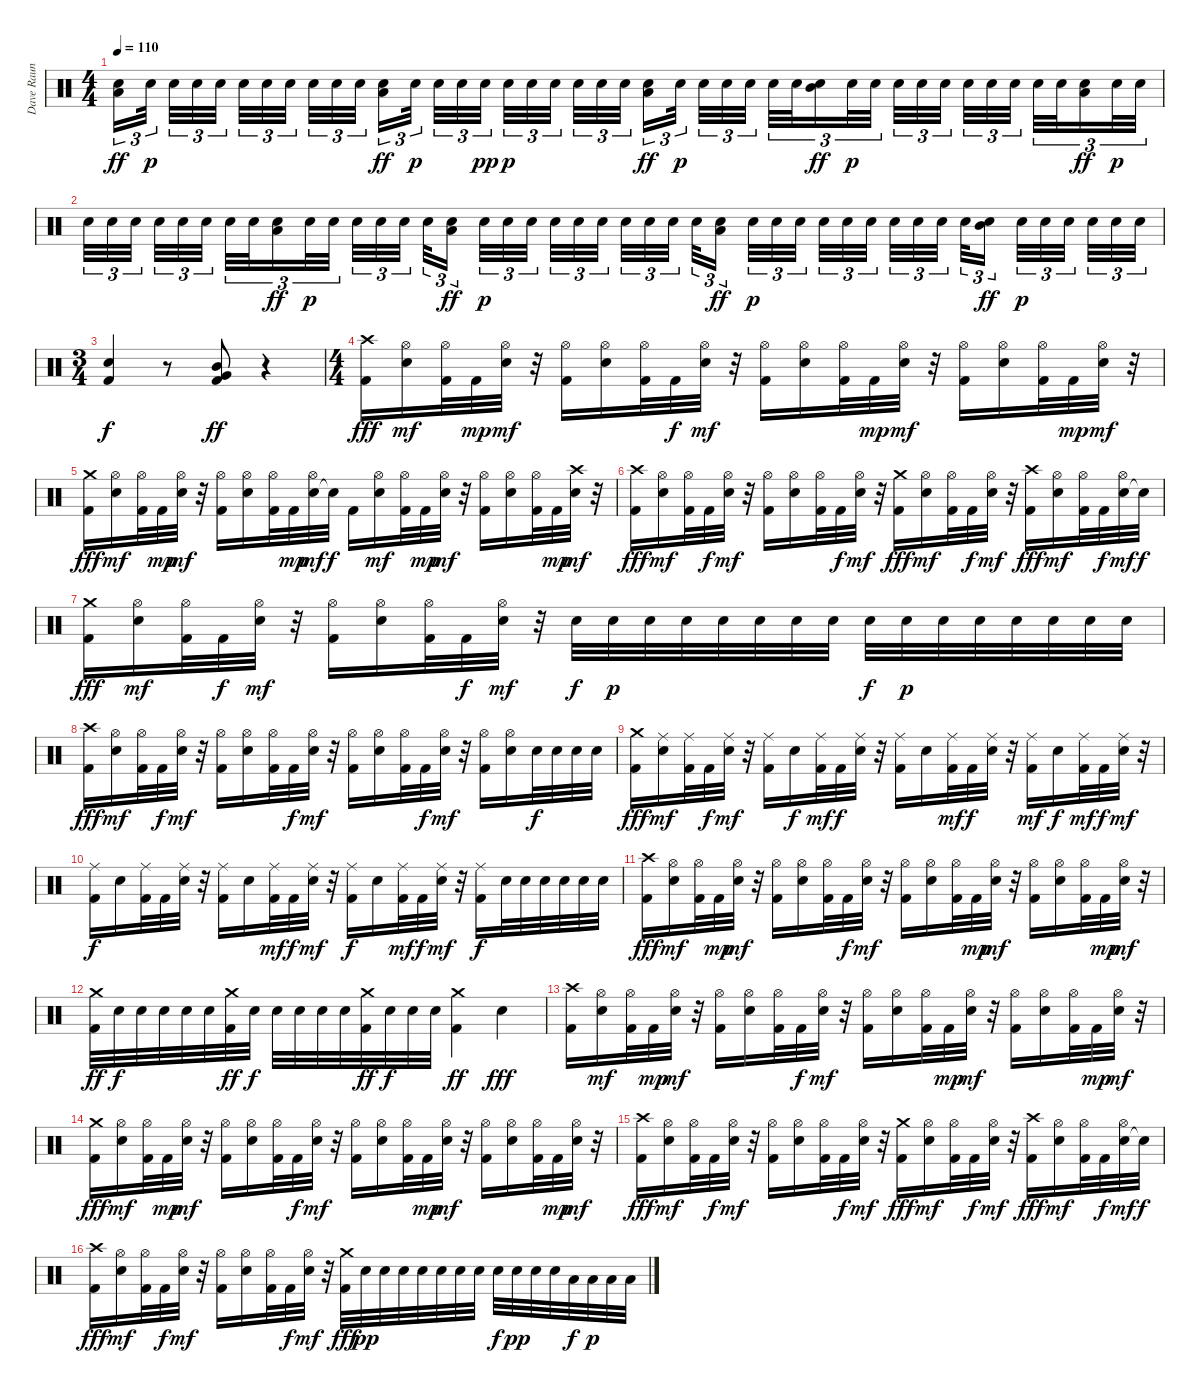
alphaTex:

\track ("Dave Raun" "Dave Raun") {instrument percussion}
\staff {score}
\articulation defaults
\ts (4 4)
\tempo 110
\clef neutral
\ks c
("Electric Snare (hit)" "Low Floor Tom (hit)").16{tu (3 2) dy ff} "Electric Snare (hit)".32{tu (3 2) dy p} "Electric Snare (hit)".32{tu (3 2)} "Electric Snare (hit)".32{tu (3 2)} "Electric Snare (hit)".32{tu (3 2)} "Electric Snare (hit)".32{tu (3 2)} "Electric Snare (hit)".32{tu (3 2)} "Electric Snare (hit)".32{tu (3 2)} "Electric Snare (hit)".32{tu (3 2)} "Electric Snare (hit)".32{tu (3 2)} "Electric Snare (hit)".32{tu (3 2)} ("Electric Snare (hit)" "Low Tom (hit)").16{tu (3 2) dy ff} "Electric Snare (hit)".32{tu (3 2) dy p} "Electric Snare (hit)".32{tu (3 2)} "Electric Snare (hit)".32{tu (3 2)} "Electric Snare (hit)".32{tu (3 2) dy pp} "Electric Snare (hit)".32{tu (3 2) dy p} "Electric Snare (hit)".32{tu (3 2)} "Electric Snare (hit)".32{tu (3 2)} "Electric Snare (hit)".32{tu (3 2)} "Electric Snare (hit)".32{tu (3 2)} "Electric Snare (hit)".32{tu (3 2)} ("Electric Snare (hit)" "Low Floor Tom (hit)").16{tu (3 2) dy ff} "Electric Snare (hit)".32{tu (3 2) dy p} "Electric Snare (hit)".32{tu (3 2)} "Electric Snare (hit)".32{tu (3 2)} "Electric Snare (hit)".32{tu (3 2)} "Electric Snare (hit)".32{tu (3 2)} "Electric Snare (hit)".32{tu (3 2)} ("Electric Snare (hit)" "Mid Tom (hit)").16{tu (3 2) dy ff} "Electric Snare (hit)".32{tu (3 2) dy p} "Electric Snare (hit)".32{tu (3 2)} "Electric Snare (hit)".32{tu (3 2)} "Electric Snare (hit)".32{tu (3 2)} "Electric Snare (hit)".32{tu (3 2)} "Electric Snare (hit)".32{tu (3 2)} "Electric Snare (hit)".32{tu (3 2)} "Electric Snare (hit)".32{tu (3 2)} "Electric Snare (hit)".32{tu (3 2)} "Electric Snare (hit)".32{tu (3 2)} ("Electric Snare (hit)" "Low Tom (hit)").16{tu (3 2) dy ff} "Electric Snare (hit)".32{tu (3 2) dy p} "Electric Snare (hit)".32{tu (3 2)} |
"Electric Snare (hit)".32{tu (3 2)} "Electric Snare (hit)".32{tu (3 2)} "Electric Snare (hit)".32{tu (3 2)} "Electric Snare (hit)".32{tu (3 2)} "Electric Snare (hit)".32{tu (3 2)} "Electric Snare (hit)".32{tu (3 2)} "Electric Snare (hit)".32{tu (3 2)} "Electric Snare (hit)".32{tu (3 2)} ("Electric Snare (hit)" "Low Floor Tom (hit)").16{tu (3 2) dy ff} "Electric Snare (hit)".32{tu (3 2) dy p} "Electric Snare (hit)".32{tu (3 2)} "Electric Snare (hit)".32{tu (3 2)} "Electric Snare (hit)".32{tu (3 2)} "Electric Snare (hit)".32{tu (3 2)} "Electric Snare (hit)".32{tu (3 2)} ("Electric Snare (hit)" "Low Tom (hit)").16{tu (3 2) dy ff} "Electric Snare (hit)".32{tu (3 2) dy p} "Electric Snare (hit)".32{tu (3 2)} "Electric Snare (hit)".32{tu (3 2)} "Electric Snare (hit)".32{tu (3 2)} "Electric Snare (hit)".32{tu (3 2)} "Electric Snare (hit)".32{tu (3 2)} "Electric Snare (hit)".32{tu (3 2)} "Electric Snare (hit)".32{tu (3 2)} "Electric Snare (hit)".32{tu (3 2)} "Electric Snare (hit)".32{tu (3 2)} ("Electric Snare (hit)" "Low Floor Tom (hit)").16{tu (3 2) dy ff} "Electric Snare (hit)".32{tu (3 2) dy p} "Electric Snare (hit)".32{tu (3 2)} "Electric Snare (hit)".32{tu (3 2)} "Electric Snare (hit)".32{tu (3 2)} "Electric Snare (hit)".32{tu (3 2)} "Electric Snare (hit)".32{tu (3 2)} "Electric Snare (hit)".32{tu (3 2)} "Electric Snare (hit)".32{tu (3 2)} "Electric Snare (hit)".32{tu (3 2)} "Electric Snare (hit)".32{tu (3 2)} ("Electric Snare (hit)" "Mid Tom (hit)").16{tu (3 2) dy ff} "Electric Snare (hit)".32{tu (3 2) dy p} "Electric Snare (hit)".32{tu (3 2)} "Electric Snare (hit)".32{tu (3 2)} "Electric Snare (hit)".32{tu (3 2)} "Electric Snare (hit)".32{tu (3 2)} "Electric Snare (hit)".32{tu (3 2)} |
\ts (3 4)
("Electric Snare (hit)" "Kick (hit) 2").4{dy f} r.8 ("Very Low Tom (hit)" "Mid Tom (hit)" "Kick (hit) 2").8{dy ff} r.4 |
\ts (4 4)
("Kick (hit) 2" "Crash high (hit)").16{dy fff} ("Electric Snare (hit)" "Hi-Hat (open)").16{dy mf} ("Kick (hit) 2" "Hi-Hat (open)").32 "Kick (hit) 2".32{dy mp} ("Electric Snare (hit)" "Hi-Hat (open)").32{dy mf} r.32 ("Kick (hit) 2" "Hi-Hat (open)").16 ("Electric Snare (hit)" "Hi-Hat (open)").16 ("Kick (hit) 2" "Hi-Hat (open)").32 "Kick (hit) 2".32{dy f} ("Electric Snare (hit)" "Hi-Hat (open)").32{dy mf} r.32 ("Kick (hit) 2" "Hi-Hat (open)").16 ("Electric Snare (hit)" "Hi-Hat (open)").16 ("Kick (hit) 2" "Hi-Hat (open)").32 "Kick (hit) 2".32{dy mp} ("Electric Snare (hit)" "Hi-Hat (open)").32{dy mf} r.32 ("Kick (hit) 2" "Hi-Hat (open)").16 ("Electric Snare (hit)" "Hi-Hat (open)").16 ("Kick (hit) 2" "Hi-Hat (open)").32 "Kick (hit) 2".32{dy mp} ("Electric Snare (hit)" "Hi-Hat (open)").32{dy mf} r.32 |
("Kick (hit) 2" "Crash medium (hit)").16{dy fff} ("Electric Snare (hit)" "Hi-Hat (open)").16{dy mf} ("Kick (hit) 2" "Hi-Hat (open)").32 "Kick (hit) 2".32{dy mp} ("Electric Snare (hit)" "Hi-Hat (open)").32{dy mf} r.32 ("Kick (hit) 2" "Hi-Hat (open)").16 ("Electric Snare (hit)" "Hi-Hat (open)").16 ("Kick (hit) 2" "Hi-Hat (open)").32 "Kick (hit) 2".32{dy mp} ("Electric Snare (hit)" "Hi-Hat (open)").32{dy mf} "Snare (hit)"{t}.32{dy f} "Kick (hit) 2".16 ("Electric Snare (hit)" "Hi-Hat (open)").16{dy mf} ("Kick (hit) 2" "Hi-Hat (open)").32 "Kick (hit) 2".32{dy mp} ("Electric Snare (hit)" "Hi-Hat (open)").32{dy mf} r.32 ("Kick (hit) 2" "Hi-Hat (open)").16 ("Electric Snare (hit)" "Hi-Hat (open)").16 ("Kick (hit) 2" "Hi-Hat (open)").32 "Kick (hit) 2".32{dy mp} ("Electric Snare (hit)" "Crash high (hit)").32{dy mf} r.32 |
("Kick (hit) 2" "Crash high (hit)").16{dy fff} ("Electric Snare (hit)" "Hi-Hat (open)").16{dy mf} ("Kick (hit) 2" "Hi-Hat (open)").32 "Kick (hit) 2".32{dy f} ("Electric Snare (hit)" "Hi-Hat (open)").32{dy mf} r.32 ("Kick (hit) 2" "Hi-Hat (open)").16 ("Electric Snare (hit)" "Hi-Hat (open)").16 ("Kick (hit) 2" "Hi-Hat (open)").32 "Kick (hit) 2".32{dy f} ("Electric Snare (hit)" "Hi-Hat (open)").32{dy mf} r.32 ("Kick (hit) 2" "Crash medium (hit)").16{dy fff} ("Electric Snare (hit)" "Hi-Hat (open)").16{dy mf} ("Kick (hit) 2" "Hi-Hat (open)").32 "Kick (hit) 2".32{dy f} ("Electric Snare (hit)" "Hi-Hat (open)").32{dy mf} r.32 ("Kick (hit) 2" "Crash high (hit)").16{dy fff} ("Electric Snare (hit)" "Hi-Hat (open)").16{dy mf} ("Kick (hit) 2" "Hi-Hat (open)").32 "Kick (hit) 2".32{dy f} ("Electric Snare (hit)" "Hi-Hat (open)").32{dy mf} "Snare (hit)"{t}.32{dy f} |
("Kick (hit) 2" "Crash medium (hit)").16{dy fff} ("Electric Snare (hit)" "Hi-Hat (open)").16{dy mf} ("Kick (hit) 2" "Hi-Hat (open)").32 "Kick (hit) 2".32{dy f} ("Electric Snare (hit)" "Hi-Hat (open)").32{dy mf} r.32 ("Kick (hit) 2" "Hi-Hat (open)").16 ("Electric Snare (hit)" "Hi-Hat (open)").16 ("Kick (hit) 2" "Hi-Hat (open)").32 "Kick (hit) 2".32{dy f} ("Electric Snare (hit)" "Hi-Hat (open)").32{dy mf} r.32 "Electric Snare (hit)".32{dy f} "Electric Snare (hit)".32{dy p} "Electric Snare (hit)".32 "Electric Snare (hit)".32 "Electric Snare (hit)".32 "Electric Snare (hit)".32 "Electric Snare (hit)".32 "Electric Snare (hit)".32 "Electric Snare (hit)".32{dy f} "Electric Snare (hit)".32{dy p} "Electric Snare (hit)".32 "Electric Snare (hit)".32 "Electric Snare (hit)".32 "Electric Snare (hit)".32 "Electric Snare (hit)".32 "Electric Snare (hit)".32 |
("Kick (hit) 2" "Crash high (hit)").16{dy fff} ("Electric Snare (hit)" "Hi-Hat (open)").16{dy mf} ("Kick (hit) 2" "Hi-Hat (open)").32 "Kick (hit) 2".32{dy f} ("Electric Snare (hit)" "Hi-Hat (open)").32{dy mf} r.32 ("Kick (hit) 2" "Hi-Hat (open)").16 ("Electric Snare (hit)" "Hi-Hat (open)").16 ("Kick (hit) 2" "Hi-Hat (open)").32 "Kick (hit) 2".32{dy f} ("Electric Snare (hit)" "Hi-Hat (open)").32{dy mf} r.32 ("Kick (hit) 2" "Hi-Hat (open)").16 ("Electric Snare (hit)" "Hi-Hat (open)").16 ("Kick (hit) 2" "Hi-Hat (open)").32 "Kick (hit) 2".32{dy f} ("Electric Snare (hit)" "Hi-Hat (open)").32{dy mf} r.32 ("Kick (hit) 2" "Hi-Hat (open)").16 ("Electric Snare (hit)" "Hi-Hat (open)").16 "Electric Snare (hit)".32{dy f} "Electric Snare (hit)".32 "Electric Snare (hit)".32 "Electric Snare (hit)".32 |
("Kick (hit) 2" "Crash medium (hit)").16{dy fff} ("Electric Snare (hit)" "Ride (middle)").16{dy mf} ("Kick (hit) 2" "Ride (middle)").32 "Kick (hit) 2".32{dy f} ("Electric Snare (hit)" "Ride (middle)").32{dy mf} r.32 ("Kick (hit) 2" "Ride (middle)").16 "Electric Snare (hit)".16{dy f} ("Kick (hit) 2" "Ride (middle)").32{dy mf} "Kick (hit) 2".32{dy f} ("Electric Snare (hit)" "Ride (middle)").32 r.32 ("Kick (hit) 2" "Ride (middle)").16 "Electric Snare (hit)".16 ("Kick (hit) 2" "Ride (middle)").32{dy mf} "Kick (hit) 2".32{dy f} ("Electric Snare (hit)" "Ride (middle)").32 r.32 ("Kick (hit) 2" "Ride (middle)").16{dy mf} "Electric Snare (hit)".16{dy f} ("Kick (hit) 2" "Ride (middle)").32{dy mf} "Kick (hit) 2".32{dy f} ("Electric Snare (hit)" "Ride (middle)").32{dy mf} r.32 |
("Kick (hit) 2" "Ride (middle)").16{dy f} "Electric Snare (hit)".16 ("Kick (hit) 2" "Ride (middle)").32 "Kick (hit) 2".32 ("Electric Snare (hit)" "Ride (middle)").32 r.32 ("Kick (hit) 2" "Ride (middle)").16 "Electric Snare (hit)".16 ("Kick (hit) 2" "Ride (middle)").32{dy mf} "Kick (hit) 2".32{dy f} ("Electric Snare (hit)" "Ride (middle)").32{dy mf} r.32 ("Kick (hit) 2" "Ride (middle)").16{dy f} "Electric Snare (hit)".16 ("Kick (hit) 2" "Ride (middle)").32{dy mf} "Kick (hit) 2".32{dy f} ("Electric Snare (hit)" "Ride (middle)").32{dy mf} r.32 ("Kick (hit) 2" "Ride (middle)").16{dy f} "Electric Snare (hit)".32 "Electric Snare (hit)".32 "Electric Snare (hit)".32 "Electric Snare (hit)".32 "Electric Snare (hit)".32 "Electric Snare (hit)".32 |
("Kick (hit) 2" "Crash high (hit)").16{dy fff} ("Electric Snare (hit)" "Hi-Hat (open)").16{dy mf} ("Kick (hit) 2" "Hi-Hat (open)").32 "Kick (hit) 2".32{dy mp} ("Electric Snare (hit)" "Hi-Hat (open)").32{dy mf} r.32 ("Kick (hit) 2" "Hi-Hat (open)").16 ("Electric Snare (hit)" "Hi-Hat (open)").16 ("Kick (hit) 2" "Hi-Hat (open)").32 "Kick (hit) 2".32{dy f} ("Electric Snare (hit)" "Hi-Hat (open)").32{dy mf} r.32 ("Kick (hit) 2" "Hi-Hat (open)").16 ("Electric Snare (hit)" "Hi-Hat (open)").16 ("Kick (hit) 2" "Hi-Hat (open)").32 "Kick (hit) 2".32{dy mp} ("Electric Snare (hit)" "Hi-Hat (open)").32{dy mf} r.32 ("Kick (hit) 2" "Hi-Hat (open)").16 ("Electric Snare (hit)" "Hi-Hat (open)").16 ("Kick (hit) 2" "Hi-Hat (open)").32 "Kick (hit) 2".32{dy mp} ("Electric Snare (hit)" "Hi-Hat (open)").32{dy mf} r.32 |
("Crash medium (hit)" "Kick (hit) 2").32{dy ff} "Electric Snare (hit)".32{dy f} "Electric Snare (hit)".32 "Electric Snare (hit)".32 "Electric Snare (hit)".32 "Electric Snare (hit)".32 ("Crash medium (hit)" "Kick (hit) 2").32{dy ff} "Electric Snare (hit)".32{dy f} "Electric Snare (hit)".32 "Electric Snare (hit)".32 "Electric Snare (hit)".32 "Electric Snare (hit)".32 ("Crash medium (hit)" "Kick (hit) 2").32{dy ff} "Electric Snare (hit)".32{dy f} "Electric Snare (hit)".32 "Electric Snare (hit)".32 ("Crash medium (hit)" "Kick (hit) 2").4{dy ff} "Electric Snare (hit)".4{dy fff} |
("Kick (hit) 2" "Crash high (hit)").16 ("Electric Snare (hit)" "Hi-Hat (open)").16{dy mf} ("Kick (hit) 2" "Hi-Hat (open)").32 "Kick (hit) 2".32{dy mp} ("Electric Snare (hit)" "Hi-Hat (open)").32{dy mf} r.32 ("Kick (hit) 2" "Hi-Hat (open)").16 ("Electric Snare (hit)" "Hi-Hat (open)").16 ("Kick (hit) 2" "Hi-Hat (open)").32 "Kick (hit) 2".32{dy f} ("Electric Snare (hit)" "Hi-Hat (open)").32{dy mf} r.32 ("Kick (hit) 2" "Hi-Hat (open)").16 ("Electric Snare (hit)" "Hi-Hat (open)").16 ("Kick (hit) 2" "Hi-Hat (open)").32 "Kick (hit) 2".32{dy mp} ("Electric Snare (hit)" "Hi-Hat (open)").32{dy mf} r.32 ("Kick (hit) 2" "Hi-Hat (open)").16 ("Electric Snare (hit)" "Hi-Hat (open)").16 ("Kick (hit) 2" "Hi-Hat (open)").32 "Kick (hit) 2".32{dy mp} ("Electric Snare (hit)" "Hi-Hat (open)").32{dy mf} r.32 |
("Kick (hit) 2" "Crash medium (hit)").16{dy fff} ("Electric Snare (hit)" "Hi-Hat (open)").16{dy mf} ("Kick (hit) 2" "Hi-Hat (open)").32 "Kick (hit) 2".32{dy mp} ("Electric Snare (hit)" "Hi-Hat (open)").32{dy mf} r.32 ("Kick (hit) 2" "Hi-Hat (open)").16 ("Electric Snare (hit)" "Hi-Hat (open)").16 ("Kick (hit) 2" "Hi-Hat (open)").32 "Kick (hit) 2".32{dy f} ("Electric Snare (hit)" "Hi-Hat (open)").32{dy mf} r.32 ("Kick (hit) 2" "Hi-Hat (open)").16 ("Electric Snare (hit)" "Hi-Hat (open)").16 ("Kick (hit) 2" "Hi-Hat (open)").32 "Kick (hit) 2".32{dy mp} ("Electric Snare (hit)" "Hi-Hat (open)").32{dy mf} r.32 ("Kick (hit) 2" "Hi-Hat (open)").16 ("Electric Snare (hit)" "Hi-Hat (open)").16 ("Kick (hit) 2" "Hi-Hat (open)").32 "Kick (hit) 2".32{dy mp} ("Electric Snare (hit)" "Hi-Hat (open)").32{dy mf} r.32 |
("Kick (hit) 2" "Crash high (hit)").16{dy fff} ("Electric Snare (hit)" "Hi-Hat (open)").16{dy mf} ("Kick (hit) 2" "Hi-Hat (open)").32 "Kick (hit) 2".32{dy f} ("Electric Snare (hit)" "Hi-Hat (open)").32{dy mf} r.32 ("Kick (hit) 2" "Hi-Hat (open)").16 ("Electric Snare (hit)" "Hi-Hat (open)").16 ("Kick (hit) 2" "Hi-Hat (open)").32 "Kick (hit) 2".32{dy f} ("Electric Snare (hit)" "Hi-Hat (open)").32{dy mf} r.32 ("Kick (hit) 2" "Crash medium (hit)").16{dy fff} ("Electric Snare (hit)" "Hi-Hat (open)").16{dy mf} ("Kick (hit) 2" "Hi-Hat (open)").32 "Kick (hit) 2".32{dy f} ("Electric Snare (hit)" "Hi-Hat (open)").32{dy mf} r.32 ("Kick (hit) 2" "Crash high (hit)").16{dy fff} ("Electric Snare (hit)" "Hi-Hat (open)").16{dy mf} ("Kick (hit) 2" "Hi-Hat (open)").32 "Kick (hit) 2".32{dy f} ("Electric Snare (hit)" "Hi-Hat (open)").32{dy mf} "Snare (hit)"{t}.32{dy f} |
("Kick (hit) 2" "Crash high (hit)").16{dy fff} ("Electric Snare (hit)" "Hi-Hat (open)").16{dy mf} ("Kick (hit) 2" "Hi-Hat (open)").32 "Kick (hit) 2".32{dy f} ("Electric Snare (hit)" "Hi-Hat (open)").32{dy mf} r.32 ("Kick (hit) 2" "Hi-Hat (open)").16 ("Electric Snare (hit)" "Hi-Hat (open)").16 ("Kick (hit) 2" "Hi-Hat (open)").32 "Kick (hit) 2".32{dy f} ("Electric Snare (hit)" "Hi-Hat (open)").32{dy mf} r.32 ("Crash medium (hit)" "Kick (hit) 2").32{dy fff} "Electric Snare (hit)".32{dy pp} "Electric Snare (hit)".32 "Electric Snare (hit)".32 "Electric Snare (hit)".32 "Electric Snare (hit)".32 "Electric Snare (hit)".32 "Electric Snare (hit)".32 "Electric Snare (hit)".32{dy f} "Electric Snare (hit)".32{dy pp} "Electric Snare (hit)".32 "Electric Snare (hit)".32 "Low Tom (hit)".32{dy f} "Low Tom (hit)".32{dy p} "Low Tom (hit)".32 "Low Tom (hit)".32
